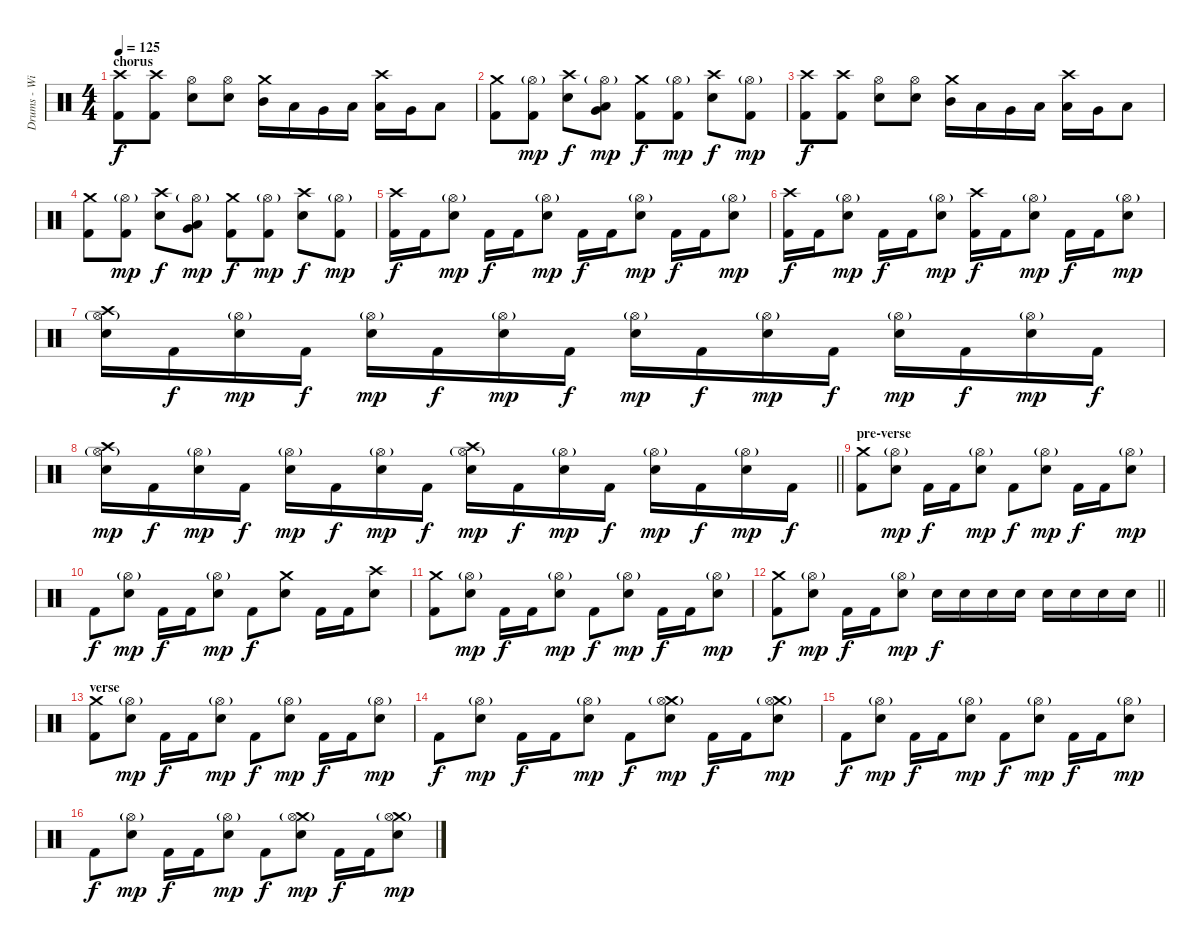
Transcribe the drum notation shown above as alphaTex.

\track ("Drums - Willie Buchan" "Drums - Wi") {instrument percussion}
\staff {score}
\articulation defaults
\ts (4 4)
\section ("" "chorus")
\tempo 125
\clef neutral
\ks c
("Crash high (hit)" "Kick (hit) 2").8{dy f} ("Crash high (hit)" "Kick (hit) 2").8 ("Hi-Hat (open)" "Electric Snare (hit)").8 ("Hi-Hat (open)" "Electric Snare (hit)").8 ("Crash medium (hit)" "Mid Tom (hit)").16 "Low Tom (hit)".16 "Very Low Tom (hit)".16 "Low Floor Tom (hit)".16 ("Crash high (hit)" "Low Tom (hit)").16 "Very Low Tom (hit)".16 "Low Floor Tom (hit)".8 |
("Crash medium (hit)" "Kick (hit) 2").8 ("Hi-Hat (open)"{g} "Kick (hit) 2").8{dy mp} ("Crash high (hit)" "Electric Snare (hit)").8{dy f} ("Hi-Hat (open)"{g} "Low Tom (hit)" "Very Low Tom (hit)").8{dy mp} ("Crash medium (hit)" "Kick (hit) 2").8{dy f} ("Hi-Hat (open)"{g} "Kick (hit) 2").8{dy mp} ("Crash high (hit)" "Electric Snare (hit)").8{dy f} ("Hi-Hat (open)"{g} "Kick (hit) 2").8{dy mp} |
("Crash high (hit)" "Kick (hit) 2").8{dy f} ("Crash high (hit)" "Kick (hit) 2").8 ("Hi-Hat (open)" "Electric Snare (hit)").8 ("Hi-Hat (open)" "Electric Snare (hit)").8 ("Crash medium (hit)" "Mid Tom (hit)").16 "Low Tom (hit)".16 "Very Low Tom (hit)".16 "Low Floor Tom (hit)".16 ("Crash high (hit)" "Low Tom (hit)").16 "Very Low Tom (hit)".16 "Low Floor Tom (hit)".8 |
("Crash medium (hit)" "Kick (hit) 2").8 ("Hi-Hat (open)"{g} "Kick (hit) 2").8{dy mp} ("Crash high (hit)" "Electric Snare (hit)").8{dy f} ("Hi-Hat (open)"{g} "Low Tom (hit)" "Very Low Tom (hit)").8{dy mp} ("Crash medium (hit)" "Kick (hit) 2").8{dy f} ("Hi-Hat (open)"{g} "Kick (hit) 2").8{dy mp} ("Crash high (hit)" "Electric Snare (hit)").8{dy f} ("Hi-Hat (open)"{g} "Kick (hit) 2").8{dy mp} |
("Crash high (hit)" "Kick (hit) 2").16{dy f} "Kick (hit) 2".16 ("Hi-Hat (open)"{g} "Electric Snare (hit)").8{dy mp} "Kick (hit) 2".16{dy f} "Kick (hit) 2".16 ("Hi-Hat (open)"{g} "Electric Snare (hit)").8{dy mp} "Kick (hit) 2".16{dy f} "Kick (hit) 2".16 ("Hi-Hat (open)"{g} "Electric Snare (hit)").8{dy mp} "Kick (hit) 2".16{dy f} "Kick (hit) 2".16 ("Hi-Hat (open)"{g} "Electric Snare (hit)").8{dy mp} |
("Crash high (hit)" "Kick (hit) 2").16{dy f} "Kick (hit) 2".16 ("Hi-Hat (open)"{g} "Electric Snare (hit)").8{dy mp} "Kick (hit) 2".16{dy f} "Kick (hit) 2".16 ("Hi-Hat (open)"{g} "Electric Snare (hit)").8{dy mp} ("Crash high (hit)" "Kick (hit) 2").16{dy f} "Kick (hit) 2".16 ("Hi-Hat (open)"{g} "Electric Snare (hit)").8{dy mp} "Kick (hit) 2".16{dy f} "Kick (hit) 2".16 ("Hi-Hat (open)"{g} "Electric Snare (hit)").8{dy mp} |
("Hi-Hat (open)"{g} "Crash high (hit)" "Electric Snare (hit)").16 "Kick (hit) 2".16{dy f} ("Hi-Hat (open)"{g} "Electric Snare (hit)").16{dy mp} "Kick (hit) 2".16{dy f} ("Hi-Hat (open)"{g} "Electric Snare (hit)").16{dy mp} "Kick (hit) 2".16{dy f} ("Hi-Hat (open)"{g} "Electric Snare (hit)").16{dy mp} "Kick (hit) 2".16{dy f} ("Hi-Hat (open)"{g} "Electric Snare (hit)").16{dy mp} "Kick (hit) 2".16{dy f} ("Hi-Hat (open)"{g} "Electric Snare (hit)").16{dy mp} "Kick (hit) 2".16{dy f} ("Hi-Hat (open)"{g} "Electric Snare (hit)").16{dy mp} "Kick (hit) 2".16{dy f} ("Hi-Hat (open)"{g} "Electric Snare (hit)").16{dy mp} "Kick (hit) 2".16{dy f} |
\barLineRight lightlight
("Hi-Hat (open)"{g} "Crash high (hit)" "Electric Snare (hit)").16{dy mp} "Kick (hit) 2".16{dy f} ("Hi-Hat (open)"{g} "Electric Snare (hit)").16{dy mp} "Kick (hit) 2".16{dy f} ("Hi-Hat (open)"{g} "Electric Snare (hit)").16{dy mp} "Kick (hit) 2".16{dy f} ("Hi-Hat (open)"{g} "Electric Snare (hit)").16{dy mp} "Kick (hit) 2".16{dy f} ("Hi-Hat (open)"{g} "Crash high (hit)" "Electric Snare (hit)").16{dy mp} "Kick (hit) 2".16{dy f} ("Hi-Hat (open)"{g} "Electric Snare (hit)").16{dy mp} "Kick (hit) 2".16{dy f} ("Hi-Hat (open)"{g} "Electric Snare (hit)").16{dy mp} "Kick (hit) 2".16{dy f} ("Hi-Hat (open)"{g} "Electric Snare (hit)").16{dy mp} "Kick (hit) 2".16{dy f} |
\section ("" "pre-verse")
("Crash medium (hit)" "Kick (hit) 2").8 ("Hi-Hat (open)"{g} "Electric Snare (hit)").8{dy mp} "Kick (hit) 2".16{dy f} "Kick (hit) 2".16 ("Hi-Hat (open)"{g} "Electric Snare (hit)").8{dy mp} "Kick (hit) 2".8{dy f} ("Hi-Hat (open)"{g} "Electric Snare (hit)").8{dy mp} "Kick (hit) 2".16{dy f} "Kick (hit) 2".16 ("Hi-Hat (open)"{g} "Electric Snare (hit)").8{dy mp} |
"Kick (hit) 2".8{dy f} ("Hi-Hat (open)"{g} "Electric Snare (hit)").8{dy mp} "Kick (hit) 2".16{dy f} "Kick (hit) 2".16 ("Hi-Hat (open)"{g} "Electric Snare (hit)").8{dy mp} "Kick (hit) 2".8{dy f} ("Crash medium (hit)" "Electric Snare (hit)").8 "Kick (hit) 2".16 "Kick (hit) 2".16 ("Crash high (hit)" "Electric Snare (hit)").8 |
("Crash medium (hit)" "Kick (hit) 2").8 ("Hi-Hat (open)"{g} "Electric Snare (hit)").8{dy mp} "Kick (hit) 2".16{dy f} "Kick (hit) 2".16 ("Hi-Hat (open)"{g} "Electric Snare (hit)").8{dy mp} "Kick (hit) 2".8{dy f} ("Hi-Hat (open)"{g} "Electric Snare (hit)").8{dy mp} "Kick (hit) 2".16{dy f} "Kick (hit) 2".16 ("Hi-Hat (open)"{g} "Electric Snare (hit)").8{dy mp} |
\barLineRight lightlight
("Crash medium (hit)" "Kick (hit) 2").8{dy f} ("Hi-Hat (open)"{g} "Electric Snare (hit)").8{dy mp} "Kick (hit) 2".16{dy f} "Kick (hit) 2".16 ("Hi-Hat (open)"{g} "Electric Snare (hit)").8{dy mp} "Electric Snare (hit)".16{dy f} "Electric Snare (hit)".16 "Electric Snare (hit)".16 "Electric Snare (hit)".16 "Electric Snare (hit)".16 "Electric Snare (hit)".16 "Electric Snare (hit)".16 "Electric Snare (hit)".16 |
\section ("" "verse")
("Crash medium (hit)" "Kick (hit) 2").8 ("Hi-Hat (open)"{g} "Electric Snare (hit)").8{dy mp} "Kick (hit) 2".16{dy f} "Kick (hit) 2".16 ("Hi-Hat (open)"{g} "Electric Snare (hit)").8{dy mp} "Kick (hit) 2".8{dy f} ("Hi-Hat (open)"{g} "Electric Snare (hit)").8{dy mp} "Kick (hit) 2".16{dy f} "Kick (hit) 2".16 ("Hi-Hat (open)"{g} "Electric Snare (hit)").8{dy mp} |
"Kick (hit) 2".8{dy f} ("Hi-Hat (open)"{g} "Electric Snare (hit)").8{dy mp} "Kick (hit) 2".16{dy f} "Kick (hit) 2".16 ("Hi-Hat (open)"{g} "Electric Snare (hit)").8{dy mp} "Kick (hit) 2".8{dy f} ("Crash medium (hit)"{g} "Hi-Hat (open)"{g} "Electric Snare (hit)").8{dy mp} "Kick (hit) 2".16{dy f} "Kick (hit) 2".16 ("Crash medium (hit)"{g} "Hi-Hat (open)"{g} "Electric Snare (hit)").8{dy mp} |
"Kick (hit) 2".8{dy f} ("Hi-Hat (open)"{g} "Electric Snare (hit)").8{dy mp} "Kick (hit) 2".16{dy f} "Kick (hit) 2".16 ("Hi-Hat (open)"{g} "Electric Snare (hit)").8{dy mp} "Kick (hit) 2".8{dy f} ("Hi-Hat (open)"{g} "Electric Snare (hit)").8{dy mp} "Kick (hit) 2".16{dy f} "Kick (hit) 2".16 ("Hi-Hat (open)"{g} "Electric Snare (hit)").8{dy mp} |
"Kick (hit) 2".8{dy f} ("Hi-Hat (open)"{g} "Electric Snare (hit)").8{dy mp} "Kick (hit) 2".16{dy f} "Kick (hit) 2".16 ("Hi-Hat (open)"{g} "Electric Snare (hit)").8{dy mp} "Kick (hit) 2".8{dy f} ("Crash medium (hit)"{g} "Hi-Hat (open)"{g} "Electric Snare (hit)").8{dy mp} "Kick (hit) 2".16{dy f} "Kick (hit) 2".16 ("Crash medium (hit)"{g} "Hi-Hat (open)"{g} "Electric Snare (hit)").8{dy mp}
